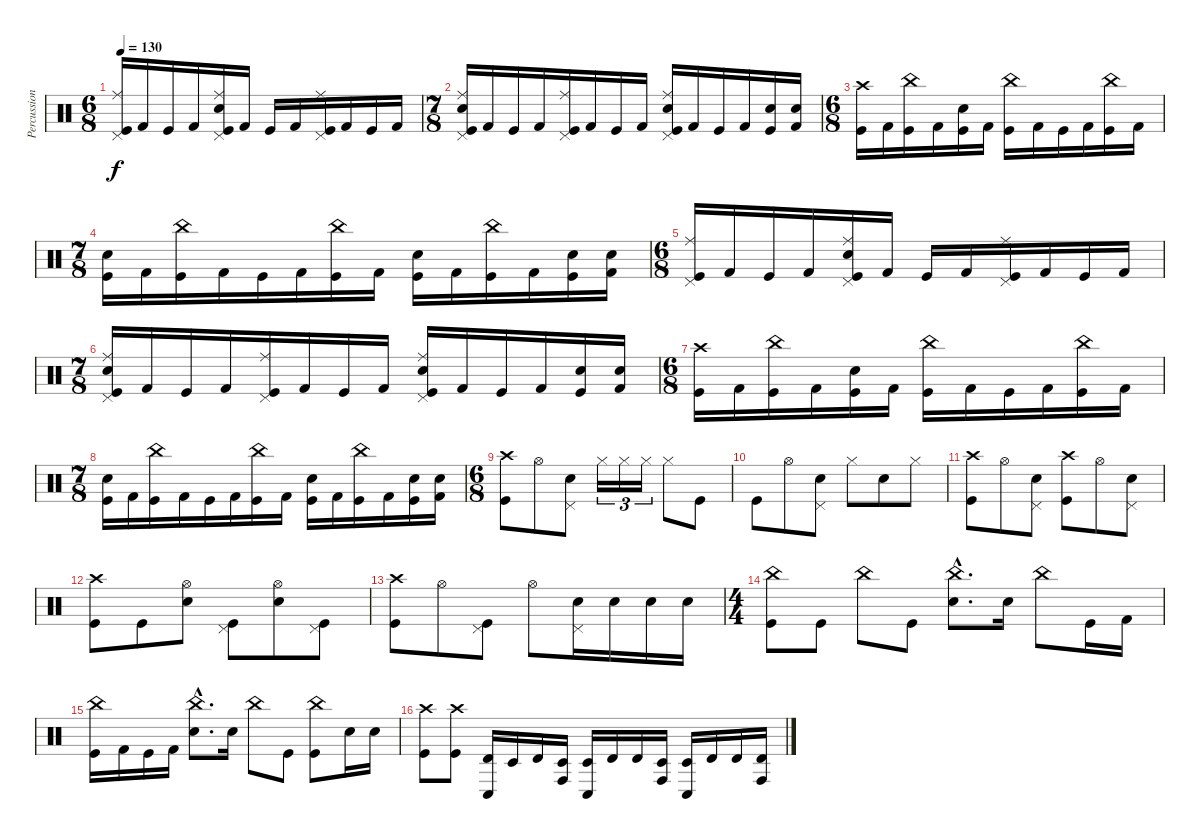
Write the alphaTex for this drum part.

\track ("Percussion" "Percussion") {instrument percussion}
\staff {score}
\articulation defaults
\ts (6 8)
\tempo 130
\clef neutral
\ks c
("Pedal Hi-Hat (hit)" "Ride (middle)" "Kick (hit)").16{dy f} "Kick (hit) 2".16 "Kick (hit)".16 "Kick (hit) 2".16 ("Pedal Hi-Hat (hit)" "Ride (middle)" "Snare (hit) 2" "Kick (hit)").16 "Kick (hit) 2".16 "Kick (hit)".16 "Kick (hit) 2".16 ("Pedal Hi-Hat (hit)" "Ride (middle)" "Kick (hit)").16 "Kick (hit) 2".16 "Kick (hit)".16 "Kick (hit) 2".16 |
\ts (7 8)
("Pedal Hi-Hat (hit)" "Ride (middle)" "Snare (hit) 2" "Kick (hit)").16 "Kick (hit) 2".16 "Kick (hit)".16 "Kick (hit) 2".16 ("Pedal Hi-Hat (hit)" "Ride (middle)" "Kick (hit)").16 "Kick (hit) 2".16 "Kick (hit)".16 "Kick (hit) 2".16 ("Pedal Hi-Hat (hit)" "Ride (middle)" "Snare (hit) 2" "Kick (hit)").16 "Kick (hit) 2".16 "Kick (hit)".16 "Kick (hit) 2".16 ("Snare (hit) 2" "Kick (hit)").16 ("Snare (hit) 2" "Kick (hit) 2").16 |
\ts (6 8)
("Kick (hit)" "Crash high (hit)").16 "Kick (hit) 2".16 ("Kick (hit)" "China (hit)").16 "Kick (hit) 2".16 ("Kick (hit)" "Snare (hit) 2").16 "Kick (hit) 2".16 ("Kick (hit)" "China (hit)").16 "Kick (hit) 2".16 "Kick (hit)".16 "Kick (hit) 2".16 ("Kick (hit)" "China (hit)").16 "Kick (hit) 2".16 |
\ts (7 8)
("Snare (hit) 2" "Kick (hit)").16 "Kick (hit) 2".16 ("China (hit)" "Kick (hit)").16 "Kick (hit) 2".16 "Kick (hit)".16 "Kick (hit) 2".16 ("China (hit)" "Kick (hit)").16 "Kick (hit) 2".16 ("Snare (hit) 2" "Kick (hit)").16 "Kick (hit) 2".16 ("China (hit)" "Kick (hit)").16 "Kick (hit) 2".16 ("Snare (hit) 2" "Kick (hit)").16 ("Snare (hit) 2" "Kick (hit) 2").16 |
\ts (6 8)
("Pedal Hi-Hat (hit)" "Ride (middle)" "Kick (hit)").16 "Kick (hit) 2".16 "Kick (hit)".16 "Kick (hit) 2".16 ("Pedal Hi-Hat (hit)" "Ride (middle)" "Snare (hit) 2" "Kick (hit)").16 "Kick (hit) 2".16 "Kick (hit)".16 "Kick (hit) 2".16 ("Pedal Hi-Hat (hit)" "Ride (middle)" "Kick (hit)").16 "Kick (hit) 2".16 "Kick (hit)".16 "Kick (hit) 2".16 |
\ts (7 8)
("Pedal Hi-Hat (hit)" "Ride (middle)" "Snare (hit) 2" "Kick (hit)").16 "Kick (hit) 2".16 "Kick (hit)".16 "Kick (hit) 2".16 ("Pedal Hi-Hat (hit)" "Ride (middle)" "Kick (hit)").16 "Kick (hit) 2".16 "Kick (hit)".16 "Kick (hit) 2".16 ("Pedal Hi-Hat (hit)" "Ride (middle)" "Snare (hit) 2" "Kick (hit)").16 "Kick (hit) 2".16 "Kick (hit)".16 "Kick (hit) 2".16 ("Snare (hit) 2" "Kick (hit)").16 ("Snare (hit) 2" "Kick (hit) 2").16 |
\ts (6 8)
("Kick (hit)" "Crash high (hit)").16 "Kick (hit) 2".16 ("Kick (hit)" "China (hit)").16 "Kick (hit) 2".16 ("Kick (hit)" "Snare (hit) 2").16 "Kick (hit) 2".16 ("Kick (hit)" "China (hit)").16 "Kick (hit) 2".16 "Kick (hit)".16 "Kick (hit) 2".16 ("Kick (hit)" "China (hit)").16 "Kick (hit) 2".16 |
\ts (7 8)
("Snare (hit) 2" "Kick (hit)").16 "Kick (hit) 2".16 ("China (hit)" "Kick (hit)").16 "Kick (hit) 2".16 "Kick (hit)".16 "Kick (hit) 2".16 ("China (hit)" "Kick (hit)").16 "Kick (hit) 2".16 ("Snare (hit) 2" "Kick (hit)").16 "Kick (hit) 2".16 ("China (hit)" "Kick (hit)").16 "Kick (hit) 2".16 ("Snare (hit) 2" "Kick (hit)").16 ("Snare (hit) 2" "Kick (hit) 2").16 |
\ts (6 8)
("Crash high (hit)" "Kick (hit)").8 "Hi-Hat (open)".8 ("Snare (hit) 2" "Pedal Hi-Hat (hit)").8 "Hi-Hat (closed)".16{tu (3 2)} "Hi-Hat (closed)".16{tu (3 2)} "Hi-Hat (closed)".16{tu (3 2)} "Hi-Hat (closed)".8 "Kick (hit)".8 |
"Kick (hit)".8 "Hi-Hat (open)".8 ("Snare (hit) 2" "Pedal Hi-Hat (hit)").8 "Hi-Hat (closed)".8 "Snare (hit) 2".8 "Hi-Hat (closed)".8 |
("Crash high (hit)" "Kick (hit)").8 "Hi-Hat (open)".8 ("Snare (hit) 2" "Pedal Hi-Hat (hit)").8 ("Crash high (hit)" "Kick (hit)").8 "Hi-Hat (open)".8 ("Snare (hit) 2" "Pedal Hi-Hat (hit)").8 |
("Kick (hit)" "Crash high (hit)").8 "Kick (hit)".8 ("Hi-Hat (open)" "Snare (hit) 2").8 ("Kick (hit)" "Pedal Hi-Hat (hit)").8 ("Electric Snare (hit)" "Hi-Hat (open)").8 ("Kick (hit)" "Pedal Hi-Hat (hit)").8 |
("Kick (hit)" "Crash high (hit)").8 "Hi-Hat (open)".8 ("Kick (hit)" "Pedal Hi-Hat (hit)").8 "Hi-Hat (open)".8 ("Snare (hit) 2" "Pedal Hi-Hat (hit)").16 "Snare (hit) 2".16 "Snare (hit) 2".16 "Snare (hit) 2".16 |
\ts (4 4)
("China (hit)" "Kick (hit)").8 "Kick (hit)".8 "China (hit)".8 "Kick (hit)".8 ("Snare (hit) 2"{hac} "China (hit)"{hac}).8{d} "Snare (hit) 2".16 "China (hit)".8 "Kick (hit)".16 "Kick (hit) 2".16 |
("China (hit)" "Kick (hit)").16 "Kick (hit) 2".16 "Kick (hit)".16 "Kick (hit) 2".16 ("China (hit)"{hac} "Snare (hit) 2"{hac}).8{d} "Snare (hit) 2".16 "China (hit)".8 "Kick (hit)".8 ("China (hit)" "Kick (hit)").8 "Snare (hit) 2".16 "Snare (hit) 2".16 |
("Crash high (hit)" "Kick (hit)").8 ("Crash high (hit)" "Kick (hit)").8 ("Conga low (hit)" "Timbale high (hit)").16 "Timbale low (hit)".16 "Timbale high (hit)".16 ("Conga high (hit)" "Timbale low (hit)").16 ("Conga low (hit)" "Timbale low (hit)").16 "Timbale high (hit)".16 "Timbale high (hit)".16 ("Conga high (hit)" "Timbale low (hit)").16 ("Conga low (hit)" "Timbale low (hit)").16 "Timbale high (hit)".16 "Timbale high (hit)".16 ("Conga high (hit)" "Timbale high (hit)").16
